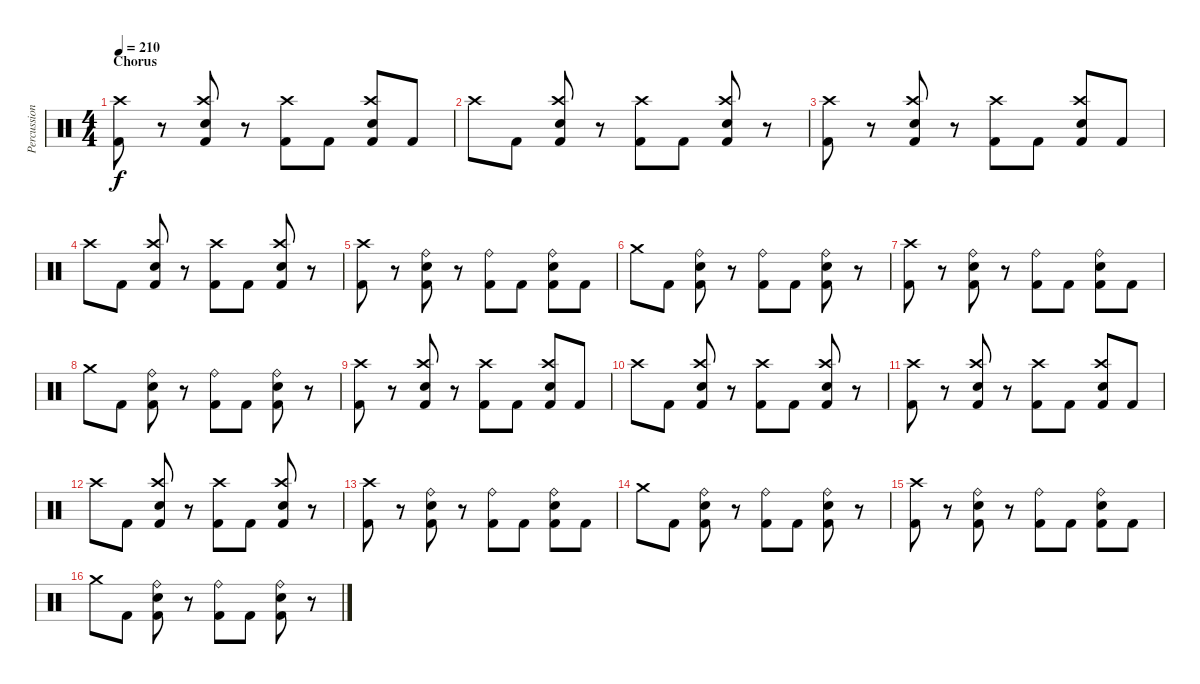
\track ("Percussion" "Percussion") {instrument percussion}
\staff {score}
\articulation defaults
\ts (4 4)
\section ("" "Chorus")
\tempo 210
\clef neutral
\ks c
("Kick (hit) 2" "Crash high (hit)").8{dy f} r.8 ("Kick (hit) 2" "Electric Snare (hit)" "Crash high (hit)").8 r.8 ("Kick (hit) 2" "Crash high (hit)").8 "Kick (hit) 2".8 ("Kick (hit) 2" "Electric Snare (hit)" "Crash high (hit)").8 "Kick (hit) 2".8 |
"Crash high (hit)".8 "Kick (hit) 2".8 ("Kick (hit) 2" "Electric Snare (hit)" "Crash high (hit)").8 r.8 ("Kick (hit) 2" "Crash high (hit)").8 "Kick (hit) 2".8 ("Kick (hit) 2" "Electric Snare (hit)" "Crash high (hit)").8 r.8 |
("Kick (hit) 2" "Crash high (hit)").8 r.8 ("Kick (hit) 2" "Electric Snare (hit)" "Crash high (hit)").8 r.8 ("Kick (hit) 2" "Crash high (hit)").8 "Kick (hit) 2".8 ("Kick (hit) 2" "Electric Snare (hit)" "Crash high (hit)").8 "Kick (hit) 2".8 |
"Crash high (hit)".8 "Kick (hit) 2".8 ("Kick (hit) 2" "Electric Snare (hit)" "Crash high (hit)").8 r.8 ("Kick (hit) 2" "Crash high (hit)").8 "Kick (hit) 2".8 ("Kick (hit) 2" "Electric Snare (hit)" "Crash high (hit)").8 r.8 |
("Kick (hit) 2" "Crash high (hit)").8 r.8 ("Kick (hit) 2" "Electric Snare (hit)" "Ride (bell)").8 r.8 ("Kick (hit) 2" "Ride (bell)").8 "Kick (hit) 2".8 ("Kick (hit) 2" "Electric Snare (hit)" "Ride (bell)").8 "Kick (hit) 2".8 |
"Crash medium (hit)".8 "Kick (hit) 2".8 ("Kick (hit) 2" "Electric Snare (hit)" "Ride (bell)").8 r.8 ("Kick (hit) 2" "Ride (bell)").8 "Kick (hit) 2".8 ("Kick (hit) 2" "Electric Snare (hit)" "Ride (bell)").8 r.8 |
("Kick (hit) 2" "Crash high (hit)").8 r.8 ("Kick (hit) 2" "Electric Snare (hit)" "Ride (bell)").8 r.8 ("Kick (hit) 2" "Ride (bell)").8 "Kick (hit) 2".8 ("Kick (hit) 2" "Electric Snare (hit)" "Ride (bell)").8 "Kick (hit) 2".8 |
"Crash medium (hit)".8 "Kick (hit) 2".8 ("Kick (hit) 2" "Electric Snare (hit)" "Ride (bell)").8 r.8 ("Kick (hit) 2" "Ride (bell)").8 "Kick (hit) 2".8 ("Kick (hit) 2" "Electric Snare (hit)" "Ride (bell)").8 r.8 |
("Kick (hit) 2" "Crash high (hit)").8 r.8 ("Kick (hit) 2" "Electric Snare (hit)" "Crash high (hit)").8 r.8 ("Kick (hit) 2" "Crash high (hit)").8 "Kick (hit) 2".8 ("Kick (hit) 2" "Electric Snare (hit)" "Crash high (hit)").8 "Kick (hit) 2".8 |
"Crash high (hit)".8 "Kick (hit) 2".8 ("Kick (hit) 2" "Electric Snare (hit)" "Crash high (hit)").8 r.8 ("Kick (hit) 2" "Crash high (hit)").8 "Kick (hit) 2".8 ("Kick (hit) 2" "Electric Snare (hit)" "Crash high (hit)").8 r.8 |
("Kick (hit) 2" "Crash high (hit)").8 r.8 ("Kick (hit) 2" "Electric Snare (hit)" "Crash high (hit)").8 r.8 ("Kick (hit) 2" "Crash high (hit)").8 "Kick (hit) 2".8 ("Kick (hit) 2" "Electric Snare (hit)" "Crash high (hit)").8 "Kick (hit) 2".8 |
"Crash high (hit)".8 "Kick (hit) 2".8 ("Kick (hit) 2" "Electric Snare (hit)" "Crash high (hit)").8 r.8 ("Kick (hit) 2" "Crash high (hit)").8 "Kick (hit) 2".8 ("Kick (hit) 2" "Electric Snare (hit)" "Crash high (hit)").8 r.8 |
("Kick (hit) 2" "Crash high (hit)").8 r.8 ("Kick (hit) 2" "Electric Snare (hit)" "Ride (bell)").8 r.8 ("Kick (hit) 2" "Ride (bell)").8 "Kick (hit) 2".8 ("Kick (hit) 2" "Electric Snare (hit)" "Ride (bell)").8 "Kick (hit) 2".8 |
"Crash medium (hit)".8 "Kick (hit) 2".8 ("Kick (hit) 2" "Electric Snare (hit)" "Ride (bell)").8 r.8 ("Kick (hit) 2" "Ride (bell)").8 "Kick (hit) 2".8 ("Kick (hit) 2" "Electric Snare (hit)" "Ride (bell)").8 r.8 |
("Kick (hit) 2" "Crash high (hit)").8 r.8 ("Kick (hit) 2" "Electric Snare (hit)" "Ride (bell)").8 r.8 ("Kick (hit) 2" "Ride (bell)").8 "Kick (hit) 2".8 ("Kick (hit) 2" "Electric Snare (hit)" "Ride (bell)").8 "Kick (hit) 2".8 |
"Crash medium (hit)".8 "Kick (hit) 2".8 ("Kick (hit) 2" "Electric Snare (hit)" "Ride (bell)").8 r.8 ("Kick (hit) 2" "Ride (bell)").8 "Kick (hit) 2".8 ("Kick (hit) 2" "Electric Snare (hit)" "Ride (bell)").8 r.8
